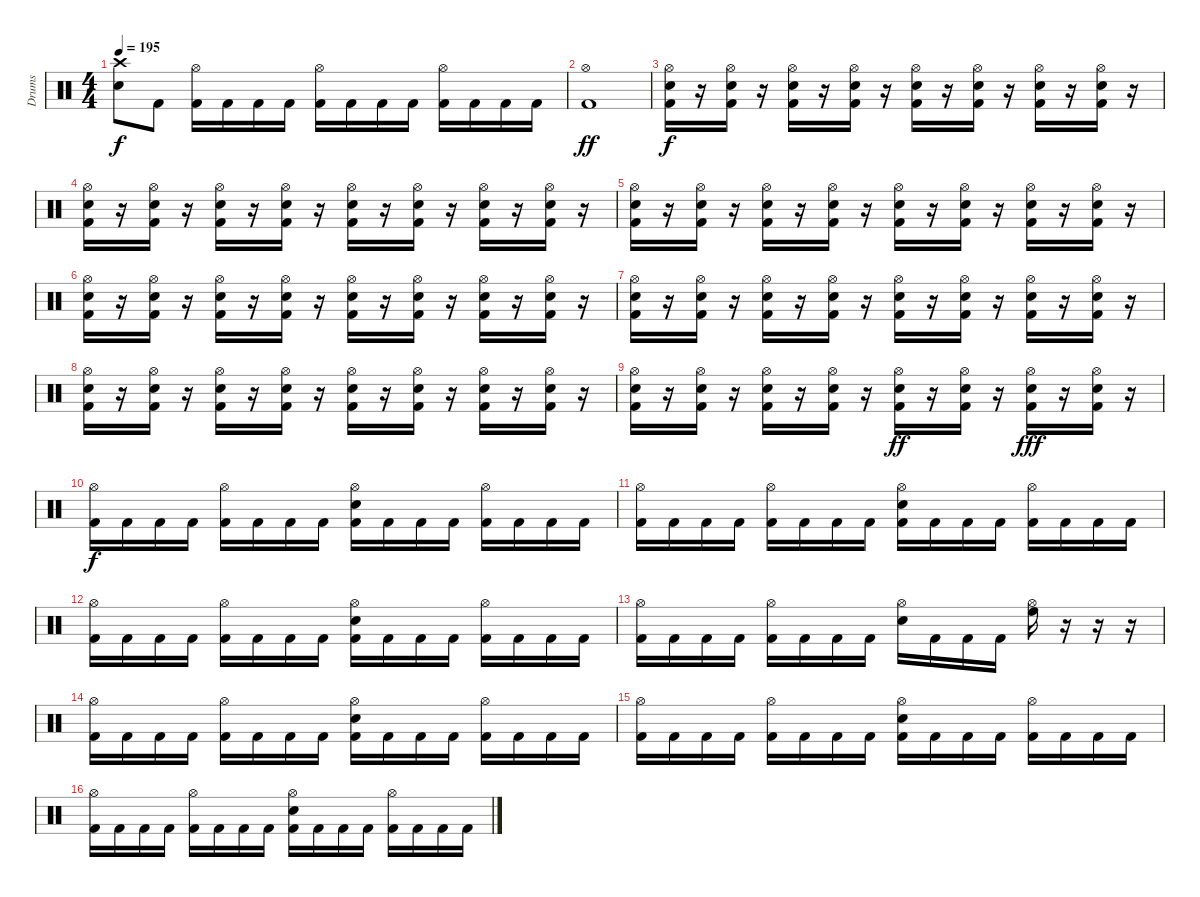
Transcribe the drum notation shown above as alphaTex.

\track ("Drums" "Drums") {instrument percussion}
\staff {score}
\articulation defaults
\ts (4 4)
\tempo 195
\clef neutral
\ks c
("Crash high (hit)" "Snare (hit) 2").8{dy f} "Kick (hit) 2".8 ("Hi-Hat (open)" "Kick (hit) 2").16 "Kick (hit) 2".16 "Kick (hit) 2".16 "Kick (hit) 2".16 ("Hi-Hat (open)" "Kick (hit) 2").16 "Kick (hit) 2".16 "Kick (hit) 2".16 "Kick (hit) 2".16 ("Hi-Hat (open)" "Kick (hit) 2").16 "Kick (hit) 2".16 "Kick (hit) 2".16 "Kick (hit) 2".16 |
("Hi-Hat (open)" "Kick (hit) 2").1{dy ff} |
("Hi-Hat (open)" "Snare (hit) 2" "Kick (hit) 2").16{dy f} r.16 ("Hi-Hat (open)" "Snare (hit) 2" "Kick (hit) 2").16 r.16 ("Hi-Hat (open)" "Snare (hit) 2" "Kick (hit) 2").16 r.16 ("Hi-Hat (open)" "Snare (hit) 2" "Kick (hit) 2").16 r.16 ("Hi-Hat (open)" "Snare (hit) 2" "Kick (hit) 2").16 r.16 ("Hi-Hat (open)" "Snare (hit) 2" "Kick (hit) 2").16 r.16 ("Hi-Hat (open)" "Snare (hit) 2" "Kick (hit) 2").16 r.16 ("Hi-Hat (open)" "Snare (hit) 2" "Kick (hit) 2").16 r.16 |
("Hi-Hat (open)" "Snare (hit) 2" "Kick (hit) 2").16 r.16 ("Hi-Hat (open)" "Snare (hit) 2" "Kick (hit) 2").16 r.16 ("Hi-Hat (open)" "Snare (hit) 2" "Kick (hit) 2").16 r.16 ("Hi-Hat (open)" "Snare (hit) 2" "Kick (hit) 2").16 r.16 ("Hi-Hat (open)" "Snare (hit) 2" "Kick (hit) 2").16 r.16 ("Hi-Hat (open)" "Snare (hit) 2" "Kick (hit) 2").16 r.16 ("Hi-Hat (open)" "Snare (hit) 2" "Kick (hit) 2").16 r.16 ("Hi-Hat (open)" "Snare (hit) 2" "Kick (hit) 2").16 r.16 |
("Hi-Hat (open)" "Snare (hit) 2" "Kick (hit) 2").16 r.16 ("Hi-Hat (open)" "Snare (hit) 2" "Kick (hit) 2").16 r.16 ("Hi-Hat (open)" "Snare (hit) 2" "Kick (hit) 2").16 r.16 ("Hi-Hat (open)" "Snare (hit) 2" "Kick (hit) 2").16 r.16 ("Hi-Hat (open)" "Snare (hit) 2" "Kick (hit) 2").16 r.16 ("Hi-Hat (open)" "Snare (hit) 2" "Kick (hit) 2").16 r.16 ("Hi-Hat (open)" "Snare (hit) 2" "Kick (hit) 2").16 r.16 ("Hi-Hat (open)" "Snare (hit) 2" "Kick (hit) 2").16 r.16 |
("Hi-Hat (open)" "Snare (hit) 2" "Kick (hit) 2").16 r.16 ("Hi-Hat (open)" "Snare (hit) 2" "Kick (hit) 2").16 r.16 ("Hi-Hat (open)" "Snare (hit) 2" "Kick (hit) 2").16 r.16 ("Hi-Hat (open)" "Snare (hit) 2" "Kick (hit) 2").16 r.16 ("Hi-Hat (open)" "Snare (hit) 2" "Kick (hit) 2").16 r.16 ("Hi-Hat (open)" "Snare (hit) 2" "Kick (hit) 2").16 r.16 ("Hi-Hat (open)" "Snare (hit) 2" "Kick (hit) 2").16 r.16 ("Hi-Hat (open)" "Snare (hit) 2" "Kick (hit) 2").16 r.16 |
("Hi-Hat (open)" "Snare (hit) 2" "Kick (hit) 2").16 r.16 ("Hi-Hat (open)" "Snare (hit) 2" "Kick (hit) 2").16 r.16 ("Hi-Hat (open)" "Snare (hit) 2" "Kick (hit) 2").16 r.16 ("Hi-Hat (open)" "Snare (hit) 2" "Kick (hit) 2").16 r.16 ("Hi-Hat (open)" "Snare (hit) 2" "Kick (hit) 2").16 r.16 ("Hi-Hat (open)" "Snare (hit) 2" "Kick (hit) 2").16 r.16 ("Hi-Hat (open)" "Snare (hit) 2" "Kick (hit) 2").16 r.16 ("Hi-Hat (open)" "Snare (hit) 2" "Kick (hit) 2").16 r.16 |
("Hi-Hat (open)" "Snare (hit) 2" "Kick (hit) 2").16 r.16 ("Hi-Hat (open)" "Snare (hit) 2" "Kick (hit) 2").16 r.16 ("Hi-Hat (open)" "Snare (hit) 2" "Kick (hit) 2").16 r.16 ("Hi-Hat (open)" "Snare (hit) 2" "Kick (hit) 2").16 r.16 ("Hi-Hat (open)" "Snare (hit) 2" "Kick (hit) 2").16 r.16 ("Hi-Hat (open)" "Snare (hit) 2" "Kick (hit) 2").16 r.16 ("Hi-Hat (open)" "Snare (hit) 2" "Kick (hit) 2").16 r.16 ("Hi-Hat (open)" "Snare (hit) 2" "Kick (hit) 2").16 r.16 |
("Hi-Hat (open)" "Snare (hit) 2" "Kick (hit) 2").16 r.16 ("Hi-Hat (open)" "Snare (hit) 2" "Kick (hit) 2").16 r.16 ("Hi-Hat (open)" "Snare (hit) 2" "Kick (hit) 2").16 r.16 ("Hi-Hat (open)" "Snare (hit) 2" "Kick (hit) 2").16 r.16 ("Hi-Hat (open)" "Snare (hit) 2" "Kick (hit) 2").16{dy ff} r.16 ("Hi-Hat (open)" "Snare (hit) 2" "Kick (hit) 2").16 r.16 ("Hi-Hat (open)" "Snare (hit) 2" "Kick (hit) 2").16{dy fff} r.16 ("Hi-Hat (open)" "Snare (hit) 2" "Kick (hit) 2").16 r.16 |
("Hi-Hat (open)" "Kick (hit) 2").16{dy f} "Kick (hit) 2".16 "Kick (hit) 2".16 "Kick (hit) 2".16 ("Hi-Hat (open)" "Kick (hit) 2").16 "Kick (hit) 2".16 "Kick (hit) 2".16 "Kick (hit) 2".16 ("Hi-Hat (open)" "Snare (hit) 2" "Kick (hit) 2").16 "Kick (hit) 2".16 "Kick (hit) 2".16 "Kick (hit) 2".16 ("Hi-Hat (open)" "Kick (hit) 2").16 "Kick (hit) 2".16 "Kick (hit) 2".16 "Kick (hit) 2".16 |
("Hi-Hat (open)" "Kick (hit) 2").16 "Kick (hit) 2".16 "Kick (hit) 2".16 "Kick (hit) 2".16 ("Hi-Hat (open)" "Kick (hit) 2").16 "Kick (hit) 2".16 "Kick (hit) 2".16 "Kick (hit) 2".16 ("Hi-Hat (open)" "Snare (hit) 2" "Kick (hit) 2").16 "Kick (hit) 2".16 "Kick (hit) 2".16 "Kick (hit) 2".16 ("Hi-Hat (open)" "Kick (hit) 2").16 "Kick (hit) 2".16 "Kick (hit) 2".16 "Kick (hit) 2".16 |
("Hi-Hat (open)" "Kick (hit) 2").16 "Kick (hit) 2".16 "Kick (hit) 2".16 "Kick (hit) 2".16 ("Hi-Hat (open)" "Kick (hit) 2").16 "Kick (hit) 2".16 "Kick (hit) 2".16 "Kick (hit) 2".16 ("Hi-Hat (open)" "Snare (hit) 2" "Kick (hit) 2").16 "Kick (hit) 2".16 "Kick (hit) 2".16 "Kick (hit) 2".16 ("Hi-Hat (open)" "Kick (hit) 2").16 "Kick (hit) 2".16 "Kick (hit) 2".16 "Kick (hit) 2".16 |
("Hi-Hat (open)" "Kick (hit) 2").16 "Kick (hit) 2".16 "Kick (hit) 2".16 "Kick (hit) 2".16 ("Hi-Hat (open)" "Kick (hit) 2").16 "Kick (hit) 2".16 "Kick (hit) 2".16 "Kick (hit) 2".16 ("Hi-Hat (open)" "Snare (hit) 2").16 "Kick (hit) 2".16 "Kick (hit) 2".16 "Kick (hit) 2".16 ("Hi-Hat (open)" "High Floor Tom (hit)").16 r.16 r.16 r.16 |
("Hi-Hat (open)" "Kick (hit) 2").16 "Kick (hit) 2".16 "Kick (hit) 2".16 "Kick (hit) 2".16 ("Hi-Hat (open)" "Kick (hit) 2").16 "Kick (hit) 2".16 "Kick (hit) 2".16 "Kick (hit) 2".16 ("Hi-Hat (open)" "Snare (hit) 2" "Kick (hit) 2").16 "Kick (hit) 2".16 "Kick (hit) 2".16 "Kick (hit) 2".16 ("Hi-Hat (open)" "Kick (hit) 2").16 "Kick (hit) 2".16 "Kick (hit) 2".16 "Kick (hit) 2".16 |
("Hi-Hat (open)" "Kick (hit) 2").16 "Kick (hit) 2".16 "Kick (hit) 2".16 "Kick (hit) 2".16 ("Hi-Hat (open)" "Kick (hit) 2").16 "Kick (hit) 2".16 "Kick (hit) 2".16 "Kick (hit) 2".16 ("Hi-Hat (open)" "Snare (hit) 2" "Kick (hit) 2").16 "Kick (hit) 2".16 "Kick (hit) 2".16 "Kick (hit) 2".16 ("Hi-Hat (open)" "Kick (hit) 2").16 "Kick (hit) 2".16 "Kick (hit) 2".16 "Kick (hit) 2".16 |
("Hi-Hat (open)" "Kick (hit) 2").16 "Kick (hit) 2".16 "Kick (hit) 2".16 "Kick (hit) 2".16 ("Hi-Hat (open)" "Kick (hit) 2").16 "Kick (hit) 2".16 "Kick (hit) 2".16 "Kick (hit) 2".16 ("Hi-Hat (open)" "Snare (hit) 2" "Kick (hit) 2").16 "Kick (hit) 2".16 "Kick (hit) 2".16 "Kick (hit) 2".16 ("Hi-Hat (open)" "Kick (hit) 2").16 "Kick (hit) 2".16 "Kick (hit) 2".16 "Kick (hit) 2".16
